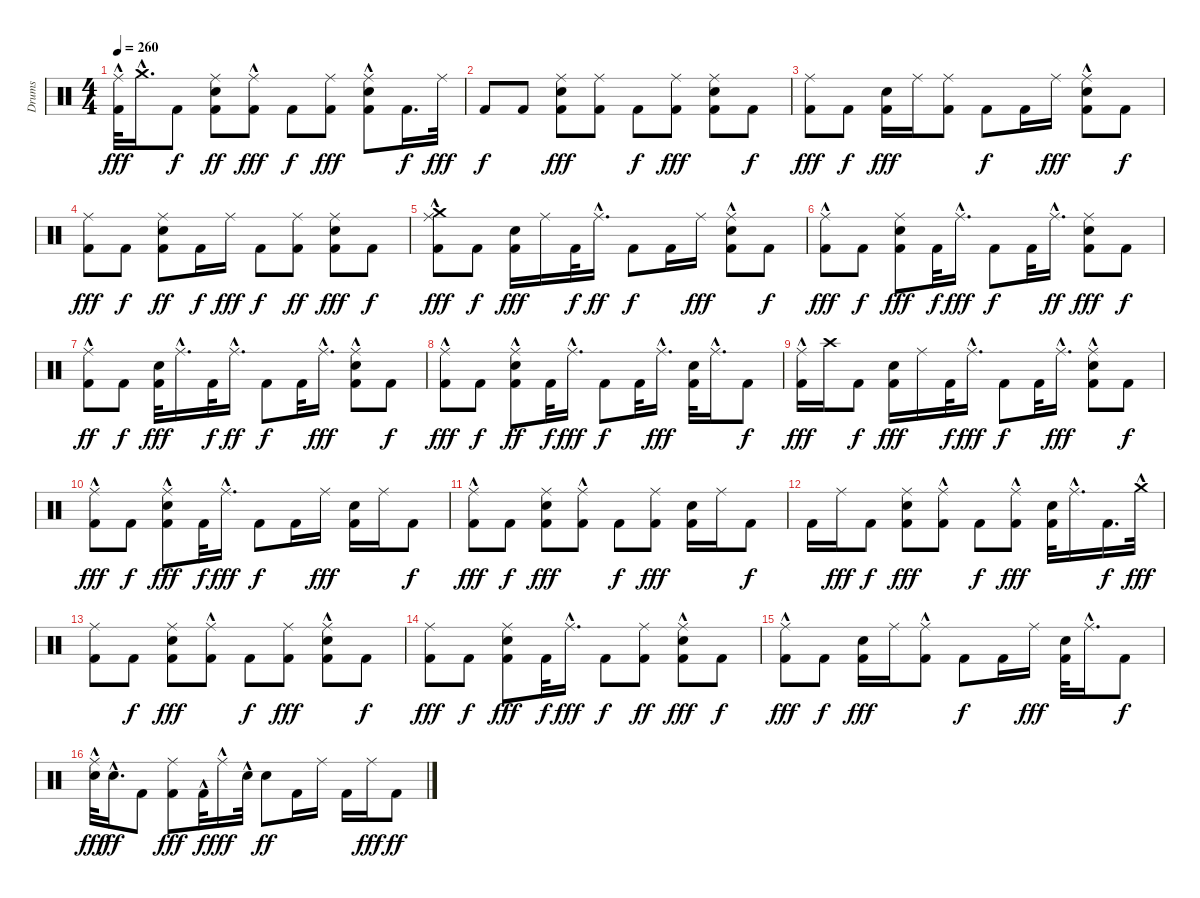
\track ("Drums" "Drums") {instrument percussion}
\staff {score}
\articulation defaults
\ts (4 4)
\tempo 260
\clef neutral
\ks c
("Ride (middle)"{hac} "Kick (hit) 2").32{dy fff} "Crash medium (hit)"{hac}.16{d} "Kick (hit) 2".8{dy f} ("Snare (hit) 2" "Kick (hit) 2" "Ride (middle)").8{dy ff} ("Ride (middle)"{hac} "Kick (hit) 2").8{dy fff} "Kick (hit) 2".8{dy f} ("Ride (middle)" "Kick (hit) 2").8{dy fff} ("Ride (middle)"{hac} "Snare (hit) 2" "Kick (hit) 2").8 "Kick (hit) 2".16{d dy f} "Ride (middle)".32{dy fff} |
"Kick (hit) 2".8{dy f} "Kick (hit) 2".8 ("Ride (middle)" "Snare (hit) 2" "Kick (hit) 2").8{dy fff} ("Ride (middle)" "Kick (hit) 2").8 "Kick (hit) 2".8{dy f} ("Kick (hit) 2" "Ride (middle)").8{dy fff} ("Snare (hit) 2" "Kick (hit) 2" "Ride (middle)").8 "Kick (hit) 2".8{dy f} |
("Kick (hit) 2" "Ride (middle)").8{dy fff} "Kick (hit) 2".8{dy f} ("Snare (hit) 2" "Kick (hit) 2").16{dy fff} "Ride (middle)".16 ("Kick (hit) 2" "Ride (middle)").8 "Kick (hit) 2".8{dy f} "Kick (hit) 2".16 "Ride (middle)".16{dy fff} ("Ride (middle)"{hac} "Snare (hit) 2" "Kick (hit) 2").8 "Kick (hit) 2".8{dy f} |
("Kick (hit) 2" "Ride (middle)").8{dy fff} "Kick (hit) 2".8{dy f} ("Snare (hit) 2" "Kick (hit) 2" "Ride (middle)").8{dy ff} "Kick (hit) 2".16{dy f} "Ride (middle)".16{dy fff} "Kick (hit) 2".8{dy f} ("Kick (hit) 2" "Ride (middle)").8{dy ff} ("Snare (hit) 2" "Kick (hit) 2" "Ride (middle)").8{dy fff} "Kick (hit) 2".8{dy f} |
("Kick (hit) 2" "Crash medium (hit)"{hac} "Ride (middle)"{hac}).8{dy fff} "Kick (hit) 2".8{dy f} ("Snare (hit) 2" "Kick (hit) 2").16{dy fff} "Ride (middle)".16 "Kick (hit) 2".32{dy f} "Ride (middle)"{hac}.16{d dy ff} "Kick (hit) 2".8{dy f} "Kick (hit) 2".16 "Ride (middle)".16{dy fff} ("Snare (hit) 2" "Kick (hit) 2" "Ride (middle)"{hac}).8 "Kick (hit) 2".8{dy f} |
("Kick (hit) 2" "Ride (middle)"{hac}).8{dy fff} "Kick (hit) 2".8{dy f} ("Snare (hit) 2" "Kick (hit) 2" "Ride (middle)").8{dy fff} "Kick (hit) 2".32{dy f} "Ride (middle)"{hac}.16{d dy fff} "Kick (hit) 2".8{dy f} "Kick (hit) 2".32 "Ride (middle)"{hac}.16{d dy ff} ("Snare (hit) 2" "Kick (hit) 2" "Ride (middle)").8{dy fff} "Kick (hit) 2".8{dy f} |
("Kick (hit) 2" "Ride (middle)"{hac}).8{dy ff} "Kick (hit) 2".8{dy f} ("Snare (hit) 2" "Kick (hit) 2").32{dy fff} "Ride (middle)"{hac}.16{d} "Kick (hit) 2".32{dy f} "Ride (middle)"{hac}.16{d dy ff} "Kick (hit) 2".8{dy f} "Kick (hit) 2".32 "Ride (middle)"{hac}.16{d dy fff} ("Snare (hit) 2" "Kick (hit) 2" "Ride (middle)"{hac}).8 "Kick (hit) 2".8{dy f} |
("Kick (hit) 2" "Ride (middle)"{hac}).8{dy fff} "Kick (hit) 2".8{dy f} ("Snare (hit) 2" "Kick (hit) 2" "Ride (middle)"{hac}).8{dy ff} "Kick (hit) 2".32{dy f} "Ride (middle)"{hac}.16{d dy fff} "Kick (hit) 2".8{dy f} "Kick (hit) 2".32 "Ride (middle)"{hac}.16{d dy fff} ("Snare (hit) 2" "Kick (hit) 2").32 "Ride (middle)"{hac}.16{d} "Kick (hit) 2".8{dy f} |
("Kick (hit) 2" "Ride (middle)"{hac}).16{dy fff} "Crash high (hit)".16 "Kick (hit) 2".8{dy f} ("Snare (hit) 2" "Kick (hit) 2").16{dy fff} "Ride (middle)".16 "Kick (hit) 2".32{dy f} "Ride (middle)"{hac}.16{d dy fff} "Kick (hit) 2".8{dy f} "Kick (hit) 2".32 "Ride (middle)"{hac}.16{d dy fff} ("Snare (hit) 2" "Kick (hit) 2" "Ride (middle)"{hac}).8 "Kick (hit) 2".8{dy f} |
("Kick (hit) 2" "Ride (middle)"{hac}).8{dy fff} "Kick (hit) 2".8{dy f} ("Snare (hit) 2" "Kick (hit) 2" "Ride (middle)"{hac}).8{dy fff} "Kick (hit) 2".32{dy f} "Ride (middle)"{hac}.16{d dy fff} "Kick (hit) 2".8{dy f} "Kick (hit) 2".16 "Ride (middle)".16{dy fff} ("Snare (hit) 2" "Kick (hit) 2").16 "Ride (middle)".16 "Kick (hit) 2".8{dy f} |
("Kick (hit) 2" "Ride (middle)"{hac}).8{dy fff} "Kick (hit) 2".8{dy f} ("Ride (middle)" "Snare (hit) 2" "Kick (hit) 2").8{dy fff} ("Kick (hit) 2" "Ride (middle)"{hac}).8 "Kick (hit) 2".8{dy f} ("Kick (hit) 2" "Ride (middle)").8{dy fff} ("Snare (hit) 2" "Kick (hit) 2").16 "Ride (middle)".16 "Kick (hit) 2".8{dy f} |
"Kick (hit) 2".16 "Ride (middle)".16{dy fff} "Kick (hit) 2".8{dy f} ("Snare (hit) 2" "Kick (hit) 2" "Ride (middle)").8{dy fff} ("Kick (hit) 2" "Ride (middle)"{hac}).8 "Kick (hit) 2".8{dy f} ("Kick (hit) 2" "Ride (middle)"{hac}).8{dy fff} ("Snare (hit) 2" "Kick (hit) 2").32 "Ride (middle)"{hac}.16{d} "Kick (hit) 2".16{d dy f} "Crash medium (hit)"{hac}.32{dy fff} |
("Ride (middle)" "Kick (hit) 2").8 "Kick (hit) 2".8{dy f} ("Ride (middle)" "Snare (hit) 2" "Kick (hit) 2").8{dy fff} ("Kick (hit) 2" "Ride (middle)"{hac}).8 "Kick (hit) 2".8{dy f} ("Kick (hit) 2" "Ride (middle)").8{dy fff} ("Snare (hit) 2" "Kick (hit) 2" "Ride (middle)"{hac}).8 "Kick (hit) 2".8{dy f} |
("Kick (hit) 2" "Ride (middle)").8{dy fff} "Kick (hit) 2".8{dy f} ("Snare (hit) 2" "Kick (hit) 2" "Ride (middle)").8{dy fff} "Kick (hit) 2".32{dy f} "Ride (middle)"{hac}.16{d dy fff} "Kick (hit) 2".8{dy f} ("Kick (hit) 2" "Ride (middle)").8{dy ff} ("Snare (hit) 2" "Kick (hit) 2" "Ride (middle)"{hac}).8{dy fff} "Kick (hit) 2".8{dy f} |
("Ride (middle)"{hac} "Kick (hit) 2").8{dy fff} "Kick (hit) 2".8{dy f} ("Snare (hit) 2" "Kick (hit) 2").16{dy fff} "Ride (middle)".16 ("Kick (hit) 2" "Ride (middle)"{hac}).8 "Kick (hit) 2".8{dy f} "Kick (hit) 2".16 "Ride (middle)".16{dy fff} ("Snare (hit) 2" "Kick (hit) 2").32 "Ride (middle)"{hac}.16{d} "Kick (hit) 2".8{dy f} |
("Electric Snare (hit)"{hac} "Ride (middle)"{hac}).32{dy fff} "Snare (hit) 2"{hac}.16{d dy ff} "Kick (hit) 2".8 ("Kick (hit) 2" "Ride (middle)").8{dy fff} "Kick (hit) 2"{hac}.32{dy f} "Ride (middle)"{hac}.16{dy fff} "Electric Snare (hit)"{hac}.32 "Snare (hit) 2".8{dy ff} "Kick (hit) 2".16 "Ride (middle)".16 "Kick (hit) 2".16 "Ride (middle)".16{dy fff} "Kick (hit) 2".8{dy ff}
